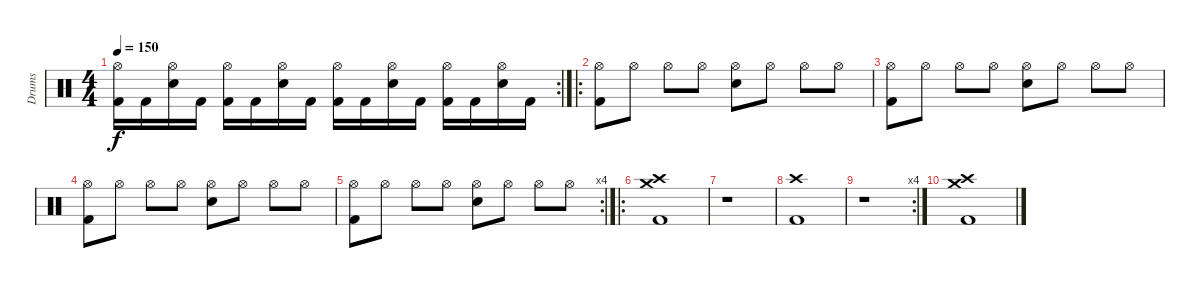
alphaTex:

\track ("Drums" "Drums") {instrument percussion}
\staff {score}
\articulation defaults
\rc 2
\ts (4 4)
\tempo 150
\clef neutral
\ks c
("Hi-Hat (open)" "Kick (hit) 2").16{dy f} "Kick (hit) 2".16 ("Hi-Hat (open)" "Electric Snare (hit)").16 "Kick (hit) 2".16 ("Hi-Hat (open)" "Kick (hit) 2").16 "Kick (hit) 2".16 ("Hi-Hat (open)" "Electric Snare (hit)").16 "Kick (hit) 2".16 ("Hi-Hat (open)" "Kick (hit) 2").16 "Kick (hit) 2".16 ("Hi-Hat (open)" "Electric Snare (hit)").16 "Kick (hit) 2".16 ("Hi-Hat (open)" "Kick (hit) 2").16 "Kick (hit) 2".16 ("Hi-Hat (open)" "Electric Snare (hit)").16 "Kick (hit) 2".16 |
\ro
("Hi-Hat (open)" "Kick (hit) 2").8 "Hi-Hat (open)".8 "Hi-Hat (open)".8 "Hi-Hat (open)".8 ("Hi-Hat (open)" "Electric Snare (hit)").8 "Hi-Hat (open)".8 "Hi-Hat (open)".8 "Hi-Hat (open)".8 |
("Hi-Hat (open)" "Kick (hit) 2").8 "Hi-Hat (open)".8 "Hi-Hat (open)".8 "Hi-Hat (open)".8 ("Hi-Hat (open)" "Electric Snare (hit)").8 "Hi-Hat (open)".8 "Hi-Hat (open)".8 "Hi-Hat (open)".8 |
("Hi-Hat (open)" "Kick (hit) 2").8 "Hi-Hat (open)".8 "Hi-Hat (open)".8 "Hi-Hat (open)".8 ("Hi-Hat (open)" "Electric Snare (hit)").8 "Hi-Hat (open)".8 "Hi-Hat (open)".8 "Hi-Hat (open)".8 |
\rc 4
("Hi-Hat (open)" "Kick (hit) 2").8 "Hi-Hat (open)".8 "Hi-Hat (open)".8 "Hi-Hat (open)".8 ("Hi-Hat (open)" "Electric Snare (hit)").8 "Hi-Hat (open)".8 "Hi-Hat (open)".8 "Hi-Hat (open)".8 |
\ro
("Crash medium (hit)" "Crash high (hit)" "Kick (hit) 2").1 |
r.1 |
("Crash high (hit)" "Kick (hit) 2").1 |
\rc 4
r.1 |
("Crash medium (hit)" "Crash high (hit)" "Kick (hit) 2").1
